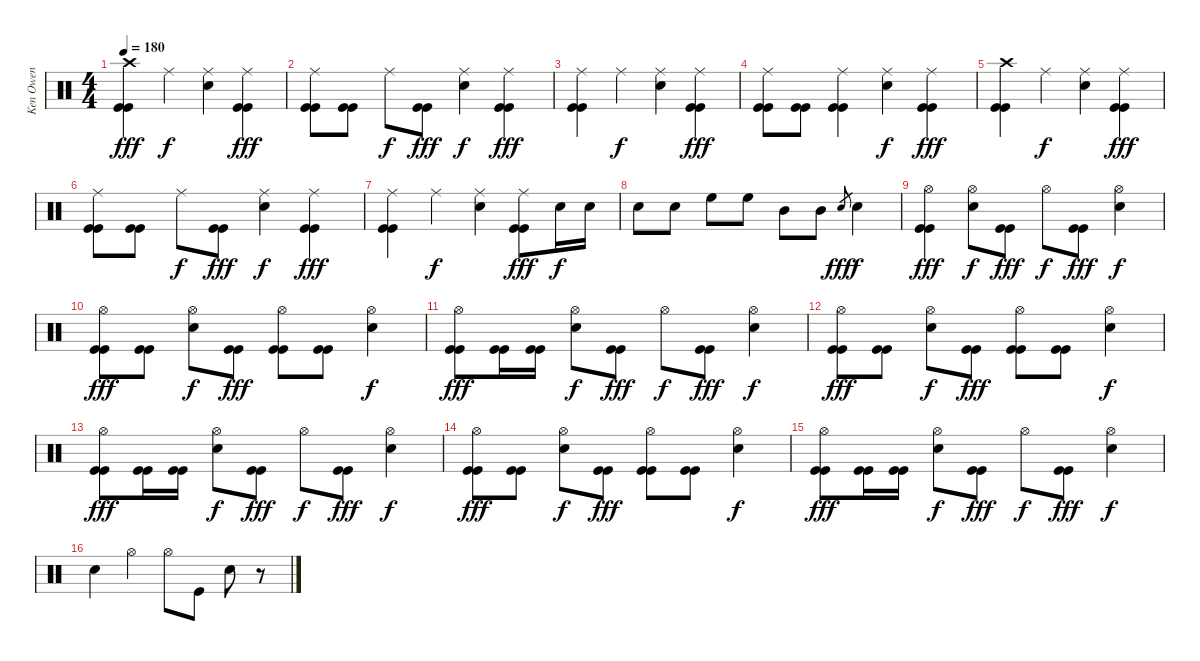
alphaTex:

\track ("Ken Owen" "Ken Owen") {instrument percussion}
\staff {score}
\articulation defaults
\ts (4 4)
\tempo 180
\clef neutral
\ks c
("Crash high (hit)" "Kick (hit)" "Kick (hit)").4{dy fff} "Ride (middle)".4{dy f} ("Ride (middle)" "Snare (hit) 2").4 ("Ride (middle)" "Kick (hit)" "Kick (hit)").4{dy fff} |
("Ride (middle)" "Kick (hit)" "Kick (hit)").8 ("Kick (hit)" "Kick (hit)").8 "Ride (middle)".8{dy f} ("Kick (hit)" "Kick (hit)").8{dy fff} ("Ride (middle)" "Snare (hit) 2").4{dy f} ("Ride (middle)" "Kick (hit)" "Kick (hit)").4{dy fff} |
("Ride (middle)" "Kick (hit)" "Kick (hit)").4 "Ride (middle)".4{dy f} ("Ride (middle)" "Snare (hit) 2").4 ("Ride (middle)" "Kick (hit)" "Kick (hit)").4{dy fff} |
("Ride (middle)" "Kick (hit)" "Kick (hit)").8 ("Kick (hit)" "Kick (hit)").8 ("Ride (middle)" "Kick (hit)" "Kick (hit)").4 ("Ride (middle)" "Snare (hit) 2").4{dy f} ("Ride (middle)" "Kick (hit)" "Kick (hit)").4{dy fff} |
("Crash high (hit)" "Kick (hit)" "Kick (hit)").4 "Ride (middle)".4{dy f} ("Ride (middle)" "Snare (hit) 2").4 ("Ride (middle)" "Kick (hit)" "Kick (hit)").4{dy fff} |
("Ride (middle)" "Kick (hit)" "Kick (hit)").8 ("Kick (hit)" "Kick (hit)").8 "Ride (middle)".8{dy f} ("Kick (hit)" "Kick (hit)").8{dy fff} ("Ride (middle)" "Snare (hit) 2").4{dy f} ("Ride (middle)" "Kick (hit)" "Kick (hit)").4{dy fff} |
("Ride (middle)" "Kick (hit)" "Kick (hit)").4 "Ride (middle)".4{dy f} ("Ride (middle)" "Snare (hit) 2").4 ("Ride (middle)" "Kick (hit)" "Kick (hit)").8{dy fff} "Snare (hit) 2".16{dy f} "Snare (hit) 2".16 |
"Snare (hit) 2".8 "Snare (hit) 2".8 "High Floor Tom (hit)".8 "High Floor Tom (hit)".8 "Mid Tom (hit)".8 "Mid Tom (hit)".8 "Snare (hit) 2".8{gr dy fff} "Snare (hit) 2".4{dy f} |
("Hi-Hat (open)" "Kick (hit)" "Kick (hit)").4{dy fff} ("Hi-Hat (open)" "Snare (hit) 2").8{dy f} ("Kick (hit)" "Kick (hit)").8{dy fff} "Hi-Hat (open)".8{dy f} ("Kick (hit)" "Kick (hit)").8{dy fff} ("Hi-Hat (open)" "Snare (hit) 2").4{dy f} |
("Hi-Hat (open)" "Kick (hit)" "Kick (hit)").8{dy fff} ("Kick (hit)" "Kick (hit)").8 ("Hi-Hat (open)" "Snare (hit) 2").8{dy f} ("Kick (hit)" "Kick (hit)").8{dy fff} ("Hi-Hat (open)" "Kick (hit)" "Kick (hit)").8 ("Kick (hit)" "Kick (hit)").8 ("Hi-Hat (open)" "Snare (hit) 2").4{dy f} |
("Hi-Hat (open)" "Kick (hit)" "Kick (hit)").8{dy fff} ("Kick (hit)" "Kick (hit)").16 ("Kick (hit)" "Kick (hit)").16 ("Hi-Hat (open)" "Snare (hit) 2").8{dy f} ("Kick (hit)" "Kick (hit)").8{dy fff} "Hi-Hat (open)".8{dy f} ("Kick (hit)" "Kick (hit)").8{dy fff} ("Hi-Hat (open)" "Snare (hit) 2").4{dy f} |
("Hi-Hat (open)" "Kick (hit)" "Kick (hit)").8{dy fff} ("Kick (hit)" "Kick (hit)").8 ("Hi-Hat (open)" "Snare (hit) 2").8{dy f} ("Kick (hit)" "Kick (hit)").8{dy fff} ("Hi-Hat (open)" "Kick (hit)" "Kick (hit)").8 ("Kick (hit)" "Kick (hit)").8 ("Hi-Hat (open)" "Snare (hit) 2").4{dy f} |
("Hi-Hat (open)" "Kick (hit)" "Kick (hit)").8{dy fff} ("Kick (hit)" "Kick (hit)").16 ("Kick (hit)" "Kick (hit)").16 ("Hi-Hat (open)" "Snare (hit) 2").8{dy f} ("Kick (hit)" "Kick (hit)").8{dy fff} "Hi-Hat (open)".8{dy f} ("Kick (hit)" "Kick (hit)").8{dy fff} ("Hi-Hat (open)" "Snare (hit) 2").4{dy f} |
("Hi-Hat (open)" "Kick (hit)" "Kick (hit)").8{dy fff} ("Kick (hit)" "Kick (hit)").8 ("Hi-Hat (open)" "Snare (hit) 2").8{dy f} ("Kick (hit)" "Kick (hit)").8{dy fff} ("Hi-Hat (open)" "Kick (hit)" "Kick (hit)").8 ("Kick (hit)" "Kick (hit)").8 ("Hi-Hat (open)" "Snare (hit) 2").4{dy f} |
("Hi-Hat (open)" "Kick (hit)" "Kick (hit)").8{dy fff} ("Kick (hit)" "Kick (hit)").16 ("Kick (hit)" "Kick (hit)").16 ("Hi-Hat (open)" "Snare (hit) 2").8{dy f} ("Kick (hit)" "Kick (hit)").8{dy fff} "Hi-Hat (open)".8{dy f} ("Kick (hit)" "Kick (hit)").8{dy fff} ("Hi-Hat (open)" "Snare (hit) 2").4{dy f} |
"Snare (hit) 2".4 "Hi-Hat (open)".4 "Hi-Hat (open)".8 "Kick (hit)".8 "Snare (hit) 2".8 r.8
